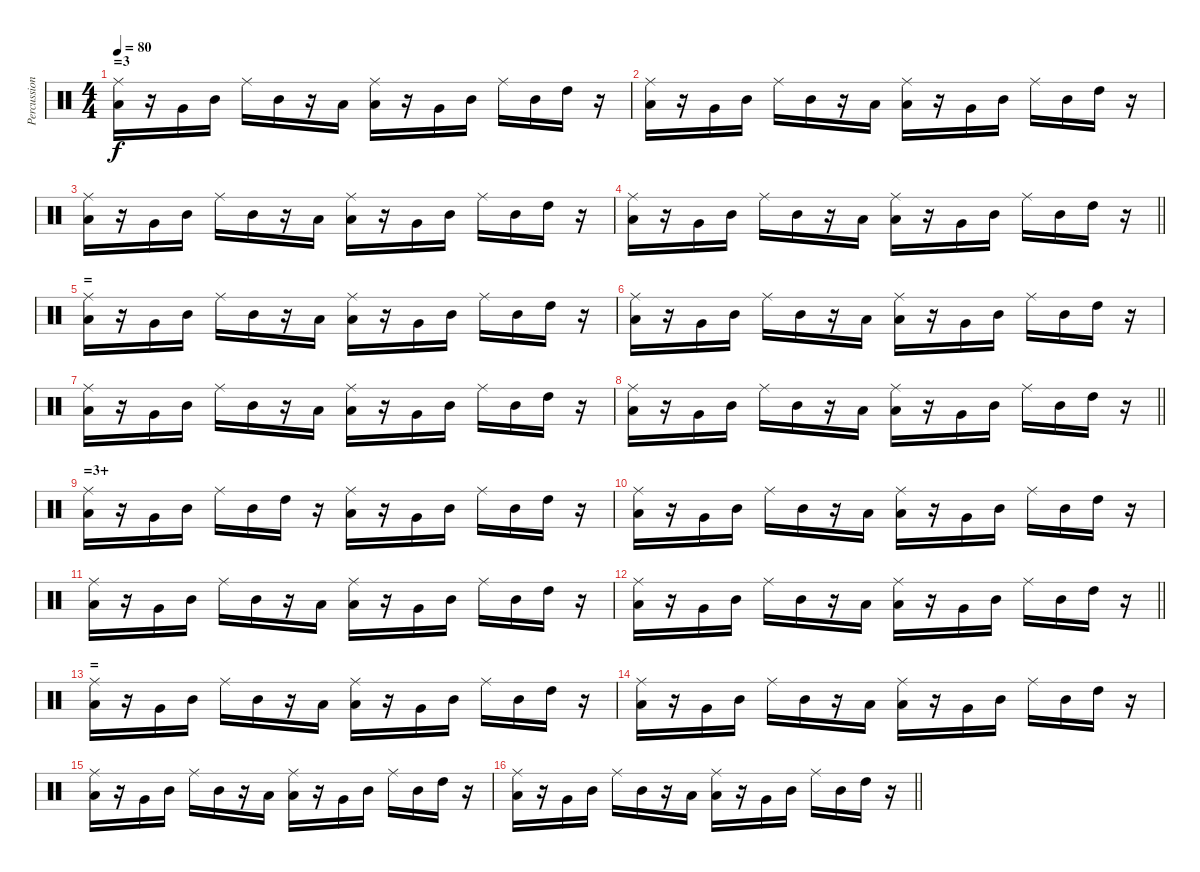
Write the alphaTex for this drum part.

\track ("Percussion" "Percussion") {instrument percussion}
\staff {score}
\articulation defaults
\ts (4 4)
\section ("" "=3")
\tempo 80
\clef neutral
\ks c
("Low Floor Tom (hit)" "Ride (middle)").16{dy f} r.16 "Very Low Tom (hit)".16 "Mid Tom (hit)".16 "Ride (middle)".16 "Mid Tom (hit)".16 r.16 "Low Tom (hit)".16 ("Low Floor Tom (hit)" "Ride (middle)").16 r.16 "Very Low Tom (hit)".16 "Mid Tom (hit)".16 "Ride (middle)".16 "Mid Tom (hit)".16 "High Tom (hit)".16 r.16 |
("Low Floor Tom (hit)" "Ride (middle)").16 r.16 "Very Low Tom (hit)".16 "Mid Tom (hit)".16 "Ride (middle)".16 "Mid Tom (hit)".16 r.16 "Low Tom (hit)".16 ("Low Floor Tom (hit)" "Ride (middle)").16 r.16 "Very Low Tom (hit)".16 "Mid Tom (hit)".16 "Ride (middle)".16 "Mid Tom (hit)".16 "High Tom (hit)".16 r.16 |
("Low Floor Tom (hit)" "Ride (middle)").16 r.16 "Very Low Tom (hit)".16 "Mid Tom (hit)".16 "Ride (middle)".16 "Mid Tom (hit)".16 r.16 "Low Tom (hit)".16 ("Low Floor Tom (hit)" "Ride (middle)").16 r.16 "Very Low Tom (hit)".16 "Mid Tom (hit)".16 "Ride (middle)".16 "Mid Tom (hit)".16 "High Tom (hit)".16 r.16 |
\barLineRight lightlight
("Low Floor Tom (hit)" "Ride (middle)").16 r.16 "Very Low Tom (hit)".16 "Mid Tom (hit)".16 "Ride (middle)".16 "Mid Tom (hit)".16 r.16 "Low Tom (hit)".16 ("Low Floor Tom (hit)" "Ride (middle)").16 r.16 "Very Low Tom (hit)".16 "Mid Tom (hit)".16 "Ride (middle)".16 "Mid Tom (hit)".16 "High Tom (hit)".16 r.16 |
\section ("" "=")
("Low Floor Tom (hit)" "Ride (middle)").16 r.16 "Very Low Tom (hit)".16 "Mid Tom (hit)".16 "Ride (middle)".16 "Mid Tom (hit)".16 r.16 "Low Tom (hit)".16 ("Low Floor Tom (hit)" "Ride (middle)").16 r.16 "Very Low Tom (hit)".16 "Mid Tom (hit)".16 "Ride (middle)".16 "Mid Tom (hit)".16 "High Tom (hit)".16 r.16 |
("Low Floor Tom (hit)" "Ride (middle)").16 r.16 "Very Low Tom (hit)".16 "Mid Tom (hit)".16 "Ride (middle)".16 "Mid Tom (hit)".16 r.16 "Low Tom (hit)".16 ("Low Floor Tom (hit)" "Ride (middle)").16 r.16 "Very Low Tom (hit)".16 "Mid Tom (hit)".16 "Ride (middle)".16 "Mid Tom (hit)".16 "High Tom (hit)".16 r.16 |
("Low Floor Tom (hit)" "Ride (middle)").16 r.16 "Very Low Tom (hit)".16 "Mid Tom (hit)".16 "Ride (middle)".16 "Mid Tom (hit)".16 r.16 "Low Tom (hit)".16 ("Low Floor Tom (hit)" "Ride (middle)").16 r.16 "Very Low Tom (hit)".16 "Mid Tom (hit)".16 "Ride (middle)".16 "Mid Tom (hit)".16 "High Tom (hit)".16 r.16 |
\barLineRight lightlight
("Low Floor Tom (hit)" "Ride (middle)").16 r.16 "Very Low Tom (hit)".16 "Mid Tom (hit)".16 "Ride (middle)".16 "Mid Tom (hit)".16 r.16 "Low Tom (hit)".16 ("Low Floor Tom (hit)" "Ride (middle)").16 r.16 "Very Low Tom (hit)".16 "Mid Tom (hit)".16 "Ride (middle)".16 "Mid Tom (hit)".16 "High Tom (hit)".16 r.16 |
\section ("" "=3+")
("Low Floor Tom (hit)" "Ride (middle)").16 r.16 "Very Low Tom (hit)".16 "Mid Tom (hit)".16 "Ride (middle)".16 "Mid Tom (hit)".16 "High Tom (hit)".16 r.16 ("Low Floor Tom (hit)" "Ride (middle)").16 r.16 "Very Low Tom (hit)".16 "Mid Tom (hit)".16 "Ride (middle)".16 "Mid Tom (hit)".16 "High Tom (hit)".16 r.16 |
("Low Floor Tom (hit)" "Ride (middle)").16 r.16 "Very Low Tom (hit)".16 "Mid Tom (hit)".16 "Ride (middle)".16 "Mid Tom (hit)".16 r.16 "Low Tom (hit)".16 ("Low Floor Tom (hit)" "Ride (middle)").16 r.16 "Very Low Tom (hit)".16 "Mid Tom (hit)".16 "Ride (middle)".16 "Mid Tom (hit)".16 "High Tom (hit)".16 r.16 |
("Low Floor Tom (hit)" "Ride (middle)").16 r.16 "Very Low Tom (hit)".16 "Mid Tom (hit)".16 "Ride (middle)".16 "Mid Tom (hit)".16 r.16 "Low Tom (hit)".16 ("Low Floor Tom (hit)" "Ride (middle)").16 r.16 "Very Low Tom (hit)".16 "Mid Tom (hit)".16 "Ride (middle)".16 "Mid Tom (hit)".16 "High Tom (hit)".16 r.16 |
\barLineRight lightlight
("Low Floor Tom (hit)" "Ride (middle)").16 r.16 "Very Low Tom (hit)".16 "Mid Tom (hit)".16 "Ride (middle)".16 "Mid Tom (hit)".16 r.16 "Low Tom (hit)".16 ("Low Floor Tom (hit)" "Ride (middle)").16 r.16 "Very Low Tom (hit)".16 "Mid Tom (hit)".16 "Ride (middle)".16 "Mid Tom (hit)".16 "High Tom (hit)".16 r.16 |
\section ("" "=")
("Low Floor Tom (hit)" "Ride (middle)").16 r.16 "Very Low Tom (hit)".16 "Mid Tom (hit)".16 "Ride (middle)".16 "Mid Tom (hit)".16 r.16 "Low Tom (hit)".16 ("Low Floor Tom (hit)" "Ride (middle)").16 r.16 "Very Low Tom (hit)".16 "Mid Tom (hit)".16 "Ride (middle)".16 "Mid Tom (hit)".16 "High Tom (hit)".16 r.16 |
("Low Floor Tom (hit)" "Ride (middle)").16 r.16 "Very Low Tom (hit)".16 "Mid Tom (hit)".16 "Ride (middle)".16 "Mid Tom (hit)".16 r.16 "Low Tom (hit)".16 ("Low Floor Tom (hit)" "Ride (middle)").16 r.16 "Very Low Tom (hit)".16 "Mid Tom (hit)".16 "Ride (middle)".16 "Mid Tom (hit)".16 "High Tom (hit)".16 r.16 |
("Low Floor Tom (hit)" "Ride (middle)").16 r.16 "Very Low Tom (hit)".16 "Mid Tom (hit)".16 "Ride (middle)".16 "Mid Tom (hit)".16 r.16 "Low Tom (hit)".16 ("Low Floor Tom (hit)" "Ride (middle)").16 r.16 "Very Low Tom (hit)".16 "Mid Tom (hit)".16 "Ride (middle)".16 "Mid Tom (hit)".16 "High Tom (hit)".16 r.16 |
\barLineRight lightlight
("Low Floor Tom (hit)" "Ride (middle)").16 r.16 "Very Low Tom (hit)".16 "Mid Tom (hit)".16 "Ride (middle)".16 "Mid Tom (hit)".16 r.16 "Low Tom (hit)".16 ("Low Floor Tom (hit)" "Ride (middle)").16 r.16 "Very Low Tom (hit)".16 "Mid Tom (hit)".16 "Ride (middle)".16 "Mid Tom (hit)".16 "High Tom (hit)".16 r.16
